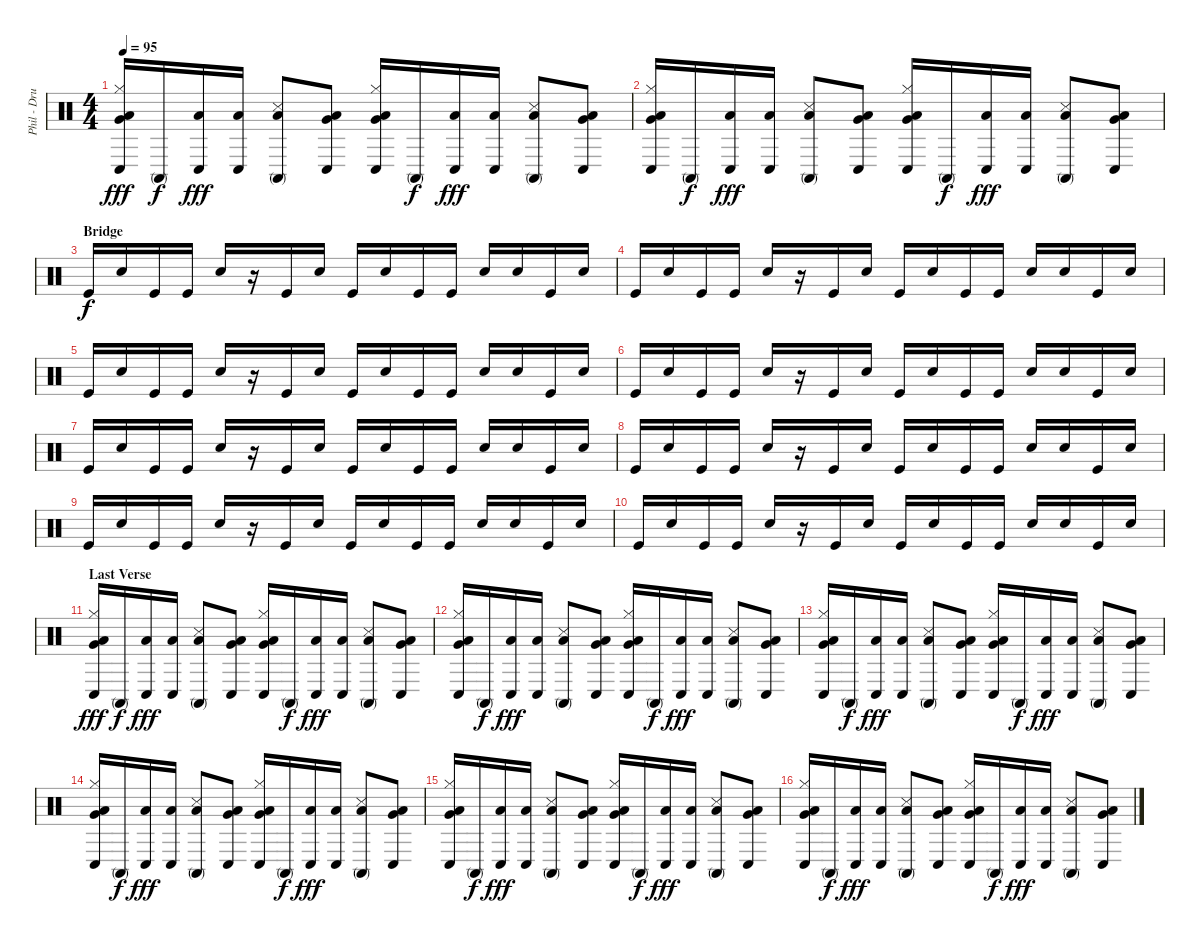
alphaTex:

\track ("Phil - Drums" "Phil - Dru") {instrument percussion}
\staff {score}
\articulation defaults
\ts (4 4)
\tempo 95
\clef neutral
\ks c
("Hi-Hat (closed)" "Conga low (hit)" "Low Floor Tom (hit)" "Very Low Tom (hit)").16{dy fff} "Conga high (mute)".16{dy f} ("Conga low (hit)" "Low Tom (hit)").16{dy fff} ("Conga low (hit)" "Low Tom (hit)").16 ("Conga high (mute)" "Snare (side stick) 3" "Low Tom (hit)").8 ("Conga low (hit)" "Low Floor Tom (hit)" "Very Low Tom (hit)").8 ("Hi-Hat (closed)" "Conga low (hit)" "Low Floor Tom (hit)" "Very Low Tom (hit)").16 "Conga high (mute)".16{dy f} ("Conga low (hit)" "Low Tom (hit)").16{dy fff} ("Conga low (hit)" "Low Tom (hit)").16 ("Conga high (mute)" "Snare (side stick) 3" "Low Tom (hit)").8 ("Conga low (hit)" "Low Floor Tom (hit)" "Very Low Tom (hit)").8 |
("Hi-Hat (closed)" "Conga low (hit)" "Low Floor Tom (hit)" "Very Low Tom (hit)").16 "Conga high (mute)".16{dy f} ("Conga low (hit)" "Low Tom (hit)").16{dy fff} ("Conga low (hit)" "Low Tom (hit)").16 ("Conga high (mute)" "Snare (side stick) 3" "Low Tom (hit)").8 ("Conga low (hit)" "Low Floor Tom (hit)" "Very Low Tom (hit)").8 ("Hi-Hat (closed)" "Conga low (hit)" "Low Floor Tom (hit)" "Very Low Tom (hit)").16 "Conga high (mute)".16{dy f} ("Conga low (hit)" "Low Tom (hit)").16{dy fff} ("Conga low (hit)" "Low Tom (hit)").16 ("Conga high (mute)" "Snare (side stick) 3" "Low Tom (hit)").8 ("Conga low (hit)" "Low Floor Tom (hit)" "Very Low Tom (hit)").8 |
\section ("" "Bridge")
"Kick (hit)".16{dy f} "Snare (hit) 2".16 "Kick (hit)".16 "Kick (hit)".16 "Snare (hit) 2".16 r.16 "Kick (hit)".16 "Snare (hit) 2".16 "Kick (hit)".16 "Snare (hit) 2".16 "Kick (hit)".16 "Kick (hit)".16 "Snare (hit) 2".16 "Snare (hit) 2".16 "Kick (hit)".16 "Snare (hit) 2".16 |
"Kick (hit)".16 "Snare (hit) 2".16 "Kick (hit)".16 "Kick (hit)".16 "Snare (hit) 2".16 r.16 "Kick (hit)".16 "Snare (hit) 2".16 "Kick (hit)".16 "Snare (hit) 2".16 "Kick (hit)".16 "Kick (hit)".16 "Snare (hit) 2".16 "Snare (hit) 2".16 "Kick (hit)".16 "Snare (hit) 2".16 |
"Kick (hit)".16 "Snare (hit) 2".16 "Kick (hit)".16 "Kick (hit)".16 "Snare (hit) 2".16 r.16 "Kick (hit)".16 "Snare (hit) 2".16 "Kick (hit)".16 "Snare (hit) 2".16 "Kick (hit)".16 "Kick (hit)".16 "Snare (hit) 2".16 "Snare (hit) 2".16 "Kick (hit)".16 "Snare (hit) 2".16 |
"Kick (hit)".16 "Snare (hit) 2".16 "Kick (hit)".16 "Kick (hit)".16 "Snare (hit) 2".16 r.16 "Kick (hit)".16 "Snare (hit) 2".16 "Kick (hit)".16 "Snare (hit) 2".16 "Kick (hit)".16 "Kick (hit)".16 "Snare (hit) 2".16 "Snare (hit) 2".16 "Kick (hit)".16 "Snare (hit) 2".16 |
"Kick (hit)".16 "Snare (hit) 2".16 "Kick (hit)".16 "Kick (hit)".16 "Snare (hit) 2".16 r.16 "Kick (hit)".16 "Snare (hit) 2".16 "Kick (hit)".16 "Snare (hit) 2".16 "Kick (hit)".16 "Kick (hit)".16 "Snare (hit) 2".16 "Snare (hit) 2".16 "Kick (hit)".16 "Snare (hit) 2".16 |
"Kick (hit)".16 "Snare (hit) 2".16 "Kick (hit)".16 "Kick (hit)".16 "Snare (hit) 2".16 r.16 "Kick (hit)".16 "Snare (hit) 2".16 "Kick (hit)".16 "Snare (hit) 2".16 "Kick (hit)".16 "Kick (hit)".16 "Snare (hit) 2".16 "Snare (hit) 2".16 "Kick (hit)".16 "Snare (hit) 2".16 |
"Kick (hit)".16 "Snare (hit) 2".16 "Kick (hit)".16 "Kick (hit)".16 "Snare (hit) 2".16 r.16 "Kick (hit)".16 "Snare (hit) 2".16 "Kick (hit)".16 "Snare (hit) 2".16 "Kick (hit)".16 "Kick (hit)".16 "Snare (hit) 2".16 "Snare (hit) 2".16 "Kick (hit)".16 "Snare (hit) 2".16 |
"Kick (hit)".16 "Snare (hit) 2".16 "Kick (hit)".16 "Kick (hit)".16 "Snare (hit) 2".16 r.16 "Kick (hit)".16 "Snare (hit) 2".16 "Kick (hit)".16 "Snare (hit) 2".16 "Kick (hit)".16 "Kick (hit)".16 "Snare (hit) 2".16 "Snare (hit) 2".16 "Kick (hit)".16 "Snare (hit) 2".16 |
\section ("" "Last Verse")
("Hi-Hat (closed)" "Conga low (hit)" "Low Floor Tom (hit)" "Very Low Tom (hit)").16{dy fff} "Conga high (mute)".16{dy f} ("Conga low (hit)" "Low Tom (hit)").16{dy fff} ("Conga low (hit)" "Low Tom (hit)").16 ("Conga high (mute)" "Snare (side stick) 3" "Low Tom (hit)").8 ("Conga low (hit)" "Low Floor Tom (hit)" "Very Low Tom (hit)").8 ("Hi-Hat (closed)" "Conga low (hit)" "Low Floor Tom (hit)" "Very Low Tom (hit)").16 "Conga high (mute)".16{dy f} ("Conga low (hit)" "Low Tom (hit)").16{dy fff} ("Conga low (hit)" "Low Tom (hit)").16 ("Conga high (mute)" "Snare (side stick) 3" "Low Tom (hit)").8 ("Conga low (hit)" "Low Floor Tom (hit)" "Very Low Tom (hit)").8 |
("Hi-Hat (closed)" "Conga low (hit)" "Low Floor Tom (hit)" "Very Low Tom (hit)").16 "Conga high (mute)".16{dy f} ("Conga low (hit)" "Low Tom (hit)").16{dy fff} ("Conga low (hit)" "Low Tom (hit)").16 ("Conga high (mute)" "Snare (side stick) 3" "Low Tom (hit)").8 ("Conga low (hit)" "Low Floor Tom (hit)" "Very Low Tom (hit)").8 ("Hi-Hat (closed)" "Conga low (hit)" "Low Floor Tom (hit)" "Very Low Tom (hit)").16 "Conga high (mute)".16{dy f} ("Conga low (hit)" "Low Tom (hit)").16{dy fff} ("Conga low (hit)" "Low Tom (hit)").16 ("Conga high (mute)" "Snare (side stick) 3" "Low Tom (hit)").8 ("Conga low (hit)" "Low Floor Tom (hit)" "Very Low Tom (hit)").8 |
("Hi-Hat (closed)" "Conga low (hit)" "Low Floor Tom (hit)" "Very Low Tom (hit)").16 "Conga high (mute)".16{dy f} ("Conga low (hit)" "Low Tom (hit)").16{dy fff} ("Conga low (hit)" "Low Tom (hit)").16 ("Conga high (mute)" "Snare (side stick) 3" "Low Tom (hit)").8 ("Conga low (hit)" "Low Floor Tom (hit)" "Very Low Tom (hit)").8 ("Hi-Hat (closed)" "Conga low (hit)" "Low Floor Tom (hit)" "Very Low Tom (hit)").16 "Conga high (mute)".16{dy f} ("Conga low (hit)" "Low Tom (hit)").16{dy fff} ("Conga low (hit)" "Low Tom (hit)").16 ("Conga high (mute)" "Snare (side stick) 3" "Low Tom (hit)").8 ("Conga low (hit)" "Low Floor Tom (hit)" "Very Low Tom (hit)").8 |
("Hi-Hat (closed)" "Conga low (hit)" "Low Floor Tom (hit)" "Very Low Tom (hit)").16 "Conga high (mute)".16{dy f} ("Conga low (hit)" "Low Tom (hit)").16{dy fff} ("Conga low (hit)" "Low Tom (hit)").16 ("Conga high (mute)" "Snare (side stick) 3" "Low Tom (hit)").8 ("Conga low (hit)" "Low Floor Tom (hit)" "Very Low Tom (hit)").8 ("Hi-Hat (closed)" "Conga low (hit)" "Low Floor Tom (hit)" "Very Low Tom (hit)").16 "Conga high (mute)".16{dy f} ("Conga low (hit)" "Low Tom (hit)").16{dy fff} ("Conga low (hit)" "Low Tom (hit)").16 ("Conga high (mute)" "Snare (side stick) 3" "Low Tom (hit)").8 ("Conga low (hit)" "Low Floor Tom (hit)" "Very Low Tom (hit)").8 |
("Hi-Hat (closed)" "Conga low (hit)" "Low Floor Tom (hit)" "Very Low Tom (hit)").16 "Conga high (mute)".16{dy f} ("Conga low (hit)" "Low Tom (hit)").16{dy fff} ("Conga low (hit)" "Low Tom (hit)").16 ("Conga high (mute)" "Snare (side stick) 3" "Low Tom (hit)").8 ("Conga low (hit)" "Low Floor Tom (hit)" "Very Low Tom (hit)").8 ("Hi-Hat (closed)" "Conga low (hit)" "Low Floor Tom (hit)" "Very Low Tom (hit)").16 "Conga high (mute)".16{dy f} ("Conga low (hit)" "Low Tom (hit)").16{dy fff} ("Conga low (hit)" "Low Tom (hit)").16 ("Conga high (mute)" "Snare (side stick) 3" "Low Tom (hit)").8 ("Conga low (hit)" "Low Floor Tom (hit)" "Very Low Tom (hit)").8 |
("Hi-Hat (closed)" "Conga low (hit)" "Low Floor Tom (hit)" "Very Low Tom (hit)").16 "Conga high (mute)".16{dy f} ("Conga low (hit)" "Low Tom (hit)").16{dy fff} ("Conga low (hit)" "Low Tom (hit)").16 ("Conga high (mute)" "Snare (side stick) 3" "Low Tom (hit)").8 ("Conga low (hit)" "Low Floor Tom (hit)" "Very Low Tom (hit)").8 ("Hi-Hat (closed)" "Conga low (hit)" "Low Floor Tom (hit)" "Very Low Tom (hit)").16 "Conga high (mute)".16{dy f} ("Conga low (hit)" "Low Tom (hit)").16{dy fff} ("Conga low (hit)" "Low Tom (hit)").16 ("Conga high (mute)" "Snare (side stick) 3" "Low Tom (hit)").8 ("Conga low (hit)" "Low Floor Tom (hit)" "Very Low Tom (hit)").8
